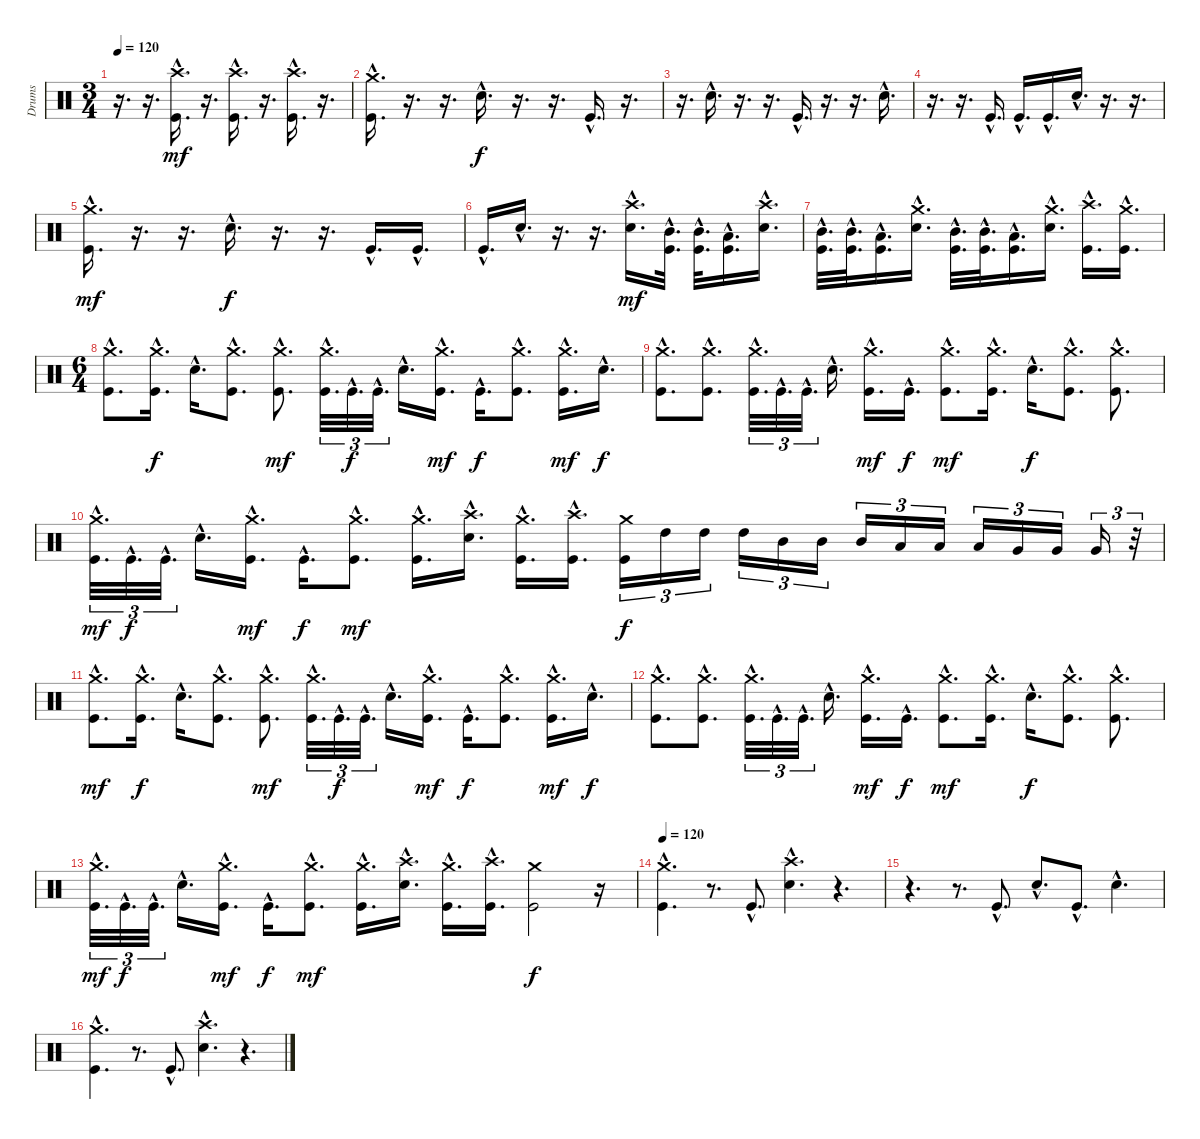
\track ("Drums" "Drums") {instrument percussion}
\staff {score}
\articulation defaults
\ts (3 4)
\tempo 120
\clef neutral
\ks c
r.16{d dy f} r.16{d} ("Crash high (hit)"{hac} "Kick (hit)"{hac}).16{d dy mf} r.16{d} ("Crash high (hit)"{hac} "Kick (hit)"{hac}).16{d} r.16{d} ("Crash high (hit)"{hac} "Kick (hit)"{hac}).16{d} r.16{d} |
("Crash medium (hit)"{hac} "Kick (hit)"{hac}).16{d} r.16{d} r.16{d} "Electric Snare (hit)"{hac}.16{d dy f} r.16{d} r.16{d} "Kick (hit)"{hac}.16{d} r.16{d} |
r.16{d} "Electric Snare (hit)"{hac}.16{d} r.16{d} r.16{d} "Kick (hit)"{hac}.16{d} r.16{d} r.16{d} "Electric Snare (hit)"{hac}.16{d} |
r.16{d} r.16{d} "Kick (hit)"{hac}.16{d} "Kick (hit)"{hac}.16{d} "Kick (hit)"{hac}.16{d} "Electric Snare (hit)"{hac}.16{d} r.16{d} r.16{d} |
("Crash medium (hit)"{hac} "Kick (hit)"{hac}).16{d dy mf} r.16{d} r.16{d} "Electric Snare (hit)"{hac}.16{d dy f} r.16{d} r.16{d} "Kick (hit)"{hac}.16{d} "Kick (hit)"{hac}.16{d} |
"Kick (hit)"{hac}.16{d} "Electric Snare (hit)"{hac}.16{d} r.16{d} r.16{d} ("Crash high (hit)"{hac} "Electric Snare (hit)"{hac}).16{d dy mf} ("Mid Tom (hit)"{hac} "Kick (hit)"{hac}).32{d} ("Mid Tom (hit)"{hac} "Kick (hit)"{hac}).32{d} ("Low Tom (hit)"{hac} "Kick (hit)"{hac}).16{d} ("Crash high (hit)"{hac} "Electric Snare (hit)"{hac}).16{d} |
("Mid Tom (hit)"{hac} "Kick (hit)"{hac}).32{d} ("Mid Tom (hit)"{hac} "Kick (hit)"{hac}).32{d} ("Low Tom (hit)"{hac} "Kick (hit)"{hac}).16{d} ("Crash medium (hit)"{hac} "Electric Snare (hit)"{hac}).16{d} ("Mid Tom (hit)"{hac} "Kick (hit)"{hac}).32{d} ("Mid Tom (hit)"{hac} "Kick (hit)"{hac}).32{d} ("Low Tom (hit)"{hac} "Kick (hit)"{hac}).16{d} ("Crash medium (hit)"{hac} "Electric Snare (hit)"{hac}).16{d} ("Crash high (hit)"{hac} "Kick (hit)"{hac}).16{d} ("Crash medium (hit)"{hac} "Kick (hit)"{hac}).16{d} |
\ts (6 4)
\section ("" "")
("Crash medium (hit)"{hac} "Kick (hit)"{hac}).8{d} ("Crash medium (hit)"{hac} "Kick (hit)"{hac}).16{d dy f} "Electric Snare (hit)"{hac}.16{d} ("Crash medium (hit)"{hac} "Kick (hit)"{hac}).8{d} ("Crash medium (hit)"{hac} "Kick (hit)"{hac}).8{d dy mf} ("Crash medium (hit)"{hac} "Kick (hit)"{hac}).32{d tu (3 2)} "Kick (hit)"{hac}.32{d tu (3 2) dy f} "Kick (hit)"{hac}.32{d tu (3 2)} "Electric Snare (hit)"{hac}.16{d} ("Crash medium (hit)"{hac} "Kick (hit)"{hac}).16{d dy mf} "Kick (hit)"{hac}.16{d dy f} ("Crash medium (hit)"{hac} "Kick (hit)"{hac}).8{d} ("Crash medium (hit)"{hac} "Kick (hit)"{hac}).16{d dy mf} "Electric Snare (hit)"{hac}.16{d dy f} |
("Crash medium (hit)"{hac} "Kick (hit)"{hac}).8{d} ("Crash medium (hit)"{hac} "Kick (hit)"{hac}).8{d} ("Crash medium (hit)"{hac} "Kick (hit)"{hac}).32{d tu (3 2)} "Kick (hit)"{hac}.32{d tu (3 2)} "Kick (hit)"{hac}.32{d tu (3 2)} "Electric Snare (hit)"{hac}.16{d} ("Crash medium (hit)"{hac} "Kick (hit)"{hac}).16{d dy mf} "Kick (hit)"{hac}.16{d dy f} ("Crash medium (hit)"{hac} "Kick (hit)"{hac}).8{d dy mf} ("Crash medium (hit)"{hac} "Kick (hit)"{hac}).16{d} "Electric Snare (hit)"{hac}.16{d dy f} ("Crash medium (hit)"{hac} "Kick (hit)"{hac}).8{d} ("Crash medium (hit)"{hac} "Kick (hit)"{hac}).8{d} |
("Crash medium (hit)"{hac} "Kick (hit)"{hac}).32{d tu (3 2) dy mf} "Kick (hit)"{hac}.32{d tu (3 2) dy f} "Kick (hit)"{hac}.32{d tu (3 2)} "Electric Snare (hit)"{hac}.16{d} ("Crash medium (hit)"{hac} "Kick (hit)"{hac}).16{d dy mf} "Kick (hit)"{hac}.16{d dy f} ("Crash medium (hit)"{hac} "Kick (hit)"{hac}).8{d dy mf} ("Crash medium (hit)"{hac} "Kick (hit)"{hac}).16{d} ("Crash high (hit)"{hac} "Electric Snare (hit)"{hac}).16{d} ("Crash medium (hit)"{hac} "Kick (hit)"{hac}).16{d} ("Crash high (hit)"{hac} "Kick (hit)"{hac}).16{d} ("Crash medium (hit)" "Kick (hit)").16{tu (3 2) dy f} "High Tom (hit)".16{tu (3 2)} "High Tom (hit)".16{tu (3 2)} "High Tom (hit)".16{tu (3 2)} "Mid Tom (hit)".16{tu (3 2)} "Mid Tom (hit)".16{tu (3 2)} "Mid Tom (hit)".16{tu (3 2)} "Low Tom (hit)".16{tu (3 2)} "Low Tom (hit)".16{tu (3 2)} "Low Tom (hit)".16{tu (3 2)} "Very Low Tom (hit)".16{tu (3 2)} "Very Low Tom (hit)".16{tu (3 2)} "Very Low Tom (hit)".16{tu (3 2)} r.32{tu (3 2)} |
("Crash medium (hit)"{hac} "Kick (hit)"{hac}).8{d dy mf} ("Crash medium (hit)"{hac} "Kick (hit)"{hac}).16{d dy f} "Electric Snare (hit)"{hac}.16{d} ("Crash medium (hit)"{hac} "Kick (hit)"{hac}).8{d} ("Crash medium (hit)"{hac} "Kick (hit)"{hac}).8{d dy mf} ("Crash medium (hit)"{hac} "Kick (hit)"{hac}).32{d tu (3 2)} "Kick (hit)"{hac}.32{d tu (3 2) dy f} "Kick (hit)"{hac}.32{d tu (3 2)} "Electric Snare (hit)"{hac}.16{d} ("Crash medium (hit)"{hac} "Kick (hit)"{hac}).16{d dy mf} "Kick (hit)"{hac}.16{d dy f} ("Crash medium (hit)"{hac} "Kick (hit)"{hac}).8{d} ("Crash medium (hit)"{hac} "Kick (hit)"{hac}).16{d dy mf} "Electric Snare (hit)"{hac}.16{d dy f} |
("Crash medium (hit)"{hac} "Kick (hit)"{hac}).8{d} ("Crash medium (hit)"{hac} "Kick (hit)"{hac}).8{d} ("Crash medium (hit)"{hac} "Kick (hit)"{hac}).32{d tu (3 2)} "Kick (hit)"{hac}.32{d tu (3 2)} "Kick (hit)"{hac}.32{d tu (3 2)} "Electric Snare (hit)"{hac}.16{d} ("Crash medium (hit)"{hac} "Kick (hit)"{hac}).16{d dy mf} "Kick (hit)"{hac}.16{d dy f} ("Crash medium (hit)"{hac} "Kick (hit)"{hac}).8{d dy mf} ("Crash medium (hit)"{hac} "Kick (hit)"{hac}).16{d} "Electric Snare (hit)"{hac}.16{d dy f} ("Crash medium (hit)"{hac} "Kick (hit)"{hac}).8{d} ("Crash medium (hit)"{hac} "Kick (hit)"{hac}).8{d} |
("Crash medium (hit)"{hac} "Kick (hit)"{hac}).32{d tu (3 2) dy mf} "Kick (hit)"{hac}.32{d tu (3 2) dy f} "Kick (hit)"{hac}.32{d tu (3 2)} "Electric Snare (hit)"{hac}.16{d} ("Crash medium (hit)"{hac} "Kick (hit)"{hac}).16{d dy mf} "Kick (hit)"{hac}.16{d dy f} ("Crash medium (hit)"{hac} "Kick (hit)"{hac}).8{d dy mf} ("Crash medium (hit)"{hac} "Kick (hit)"{hac}).16{d} ("Crash high (hit)"{hac} "Electric Snare (hit)"{hac}).16{d} ("Crash medium (hit)"{hac} "Kick (hit)"{hac}).16{d} ("Crash high (hit)"{hac} "Kick (hit)"{hac}).16{d} ("Crash medium (hit)" "Kick (hit)").2{dy f} r.16 |
\section ("" "")
\tempo 120
("Crash medium (hit)"{hac} "Kick (hit)"{hac}).4{d} r.8{d} "Kick (hit)"{hac}.8{d} ("Crash high (hit)"{hac} "Electric Snare (hit)"{hac}).4{d} r.4{d} |
r.4{d} r.8{d} "Kick (hit)"{hac}.8{d} "Electric Snare (hit)"{hac}.8{d} "Kick (hit)"{hac}.8{d} "Electric Snare (hit)"{hac}.4{d} |
("Crash medium (hit)"{hac} "Kick (hit)"{hac}).4{d} r.8{d} "Kick (hit)"{hac}.8{d} ("Crash high (hit)"{hac} "Electric Snare (hit)"{hac}).4{d} r.4{d}
